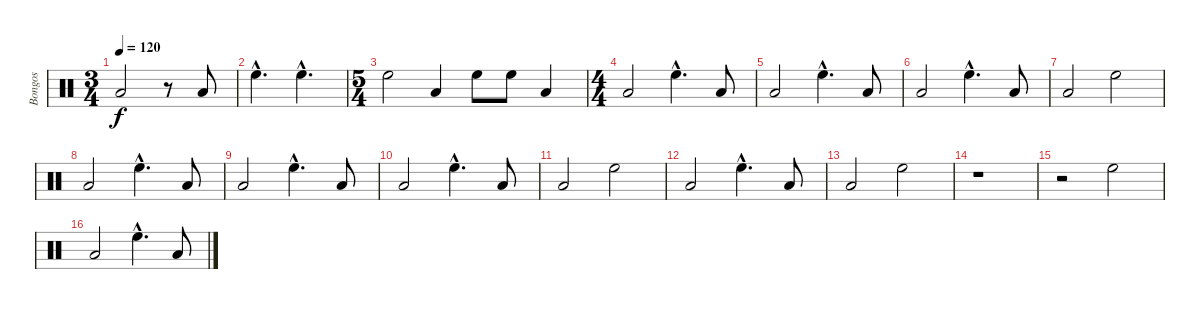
\track ("Bongos" "Bongos") {instrument percussion}
\staff {score}
\articulation defaults
\ts (3 4)
\tempo 120
\clef neutral
\ks c "Low Floor Tom (hit)".2{dy f}
r.8 "Low Floor Tom (hit)".8 |
"High Floor Tom (hit)"{hac}.4{d} "High Floor Tom (hit)"{hac}.4{d} |
\ts (5 4)
"High Floor Tom (hit)".2 "Low Floor Tom (hit)".4 "High Floor Tom (hit)".8 "High Floor Tom (hit)".8 "Low Floor Tom (hit)".4 |
\ts (4 4)
"Low Floor Tom (hit)".2 "High Floor Tom (hit)"{hac}.4{d} "Low Floor Tom (hit)".8 |
"Low Floor Tom (hit)".2 "High Floor Tom (hit)"{hac}.4{d} "Low Floor Tom (hit)".8 |
"Low Floor Tom (hit)".2 "High Floor Tom (hit)"{hac}.4{d} "Low Floor Tom (hit)".8 |
"Low Floor Tom (hit)".2 "High Floor Tom (hit)".2 |
"Low Floor Tom (hit)".2 "High Floor Tom (hit)"{hac}.4{d} "Low Floor Tom (hit)".8 |
"Low Floor Tom (hit)".2 "High Floor Tom (hit)"{hac}.4{d} "Low Floor Tom (hit)".8 |
"Low Floor Tom (hit)".2 "High Floor Tom (hit)"{hac}.4{d} "Low Floor Tom (hit)".8 |
"Low Floor Tom (hit)".2 "High Floor Tom (hit)".2 |
"Low Floor Tom (hit)".2 "High Floor Tom (hit)"{hac}.4{d} "Low Floor Tom (hit)".8 |
"Low Floor Tom (hit)".2 "High Floor Tom (hit)".2 |
r.1 |
r.2 "High Floor Tom (hit)".2 |
"Low Floor Tom (hit)".2 "High Floor Tom (hit)"{hac}.4{d} "Low Floor Tom (hit)".8
